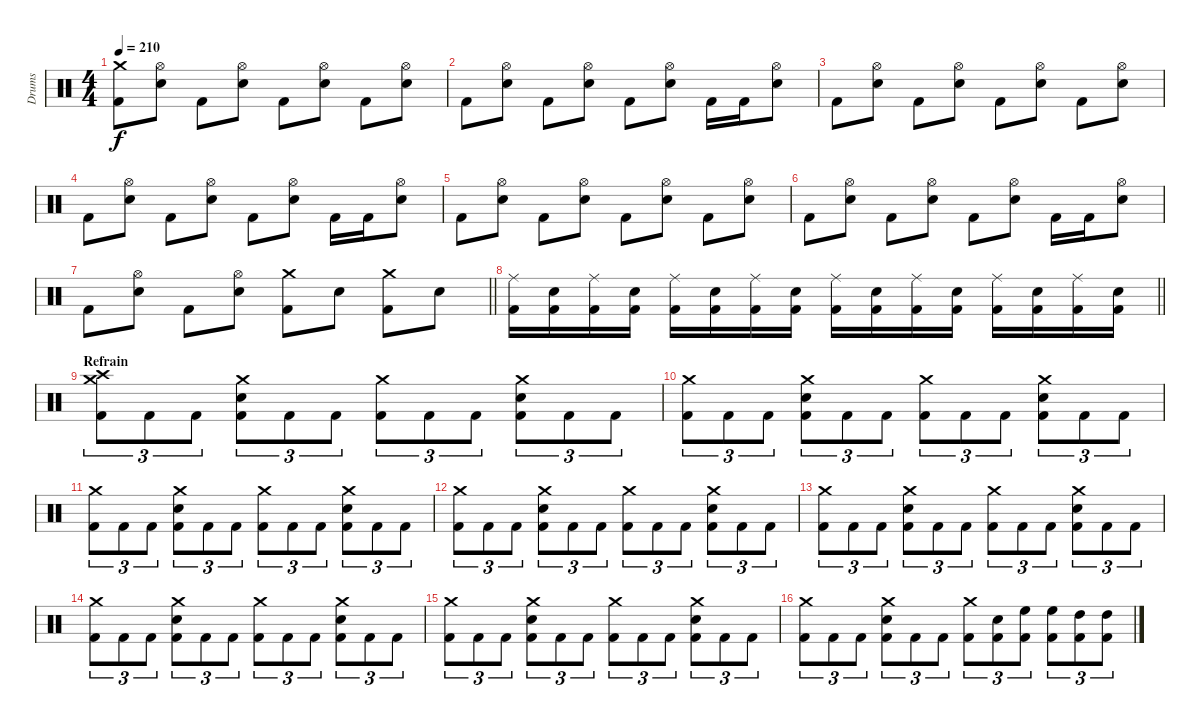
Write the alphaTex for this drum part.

\track ("Drums" "Drums") {instrument percussion}
\staff {score}
\articulation defaults
\ts (4 4)
\tempo 210
\clef neutral
\ks c
("Crash medium (hit)" "Kick (hit) 2").8{dy f} ("Hi-Hat (open)" "Electric Snare (hit)").8 "Kick (hit) 2".8 ("Hi-Hat (open)" "Electric Snare (hit)").8 "Kick (hit) 2".8 ("Hi-Hat (open)" "Electric Snare (hit)").8 "Kick (hit) 2".8 ("Hi-Hat (open)" "Electric Snare (hit)").8 |
"Kick (hit) 2".8 ("Hi-Hat (open)" "Electric Snare (hit)").8 "Kick (hit) 2".8 ("Hi-Hat (open)" "Electric Snare (hit)").8 "Kick (hit) 2".8 ("Hi-Hat (open)" "Electric Snare (hit)").8 "Kick (hit) 2".16 "Kick (hit) 2".16 ("Hi-Hat (open)" "Electric Snare (hit)").8 |
"Kick (hit) 2".8 ("Hi-Hat (open)" "Electric Snare (hit)").8 "Kick (hit) 2".8 ("Hi-Hat (open)" "Electric Snare (hit)").8 "Kick (hit) 2".8 ("Hi-Hat (open)" "Electric Snare (hit)").8 "Kick (hit) 2".8 ("Hi-Hat (open)" "Electric Snare (hit)").8 |
"Kick (hit) 2".8 ("Hi-Hat (open)" "Electric Snare (hit)").8 "Kick (hit) 2".8 ("Hi-Hat (open)" "Electric Snare (hit)").8 "Kick (hit) 2".8 ("Hi-Hat (open)" "Electric Snare (hit)").8 "Kick (hit) 2".16 "Kick (hit) 2".16 ("Hi-Hat (open)" "Electric Snare (hit)").8 |
"Kick (hit) 2".8 ("Hi-Hat (open)" "Electric Snare (hit)").8 "Kick (hit) 2".8 ("Hi-Hat (open)" "Electric Snare (hit)").8 "Kick (hit) 2".8 ("Hi-Hat (open)" "Electric Snare (hit)").8 "Kick (hit) 2".8 ("Hi-Hat (open)" "Electric Snare (hit)").8 |
"Kick (hit) 2".8 ("Hi-Hat (open)" "Electric Snare (hit)").8 "Kick (hit) 2".8 ("Hi-Hat (open)" "Electric Snare (hit)").8 "Kick (hit) 2".8 ("Hi-Hat (open)" "Electric Snare (hit)").8 "Kick (hit) 2".16 "Kick (hit) 2".16 ("Hi-Hat (open)" "Electric Snare (hit)").8 |
\barLineRight lightlight "Kick (hit) 2".8
("Hi-Hat (open)" "Electric Snare (hit)").8 "Kick (hit) 2".8 ("Hi-Hat (open)" "Electric Snare (hit)").8 ("Crash medium (hit)" "Kick (hit) 2").8 "Electric Snare (hit)".8 ("Crash medium (hit)" "Kick (hit) 2").8 "Electric Snare (hit)".8 |
\barLineRight lightlight
("Ride (middle)" "Kick (hit) 2").16 ("Electric Snare (hit)" "Kick (hit) 2").16 ("Ride (middle)" "Kick (hit) 2").16 ("Electric Snare (hit)" "Kick (hit) 2").16 ("Ride (middle)" "Kick (hit) 2").16 ("Electric Snare (hit)" "Kick (hit) 2").16 ("Ride (middle)" "Kick (hit) 2").16 ("Electric Snare (hit)" "Kick (hit) 2").16 ("Ride (middle)" "Kick (hit) 2").16 ("Electric Snare (hit)" "Kick (hit) 2").16 ("Ride (middle)" "Kick (hit) 2").16 ("Electric Snare (hit)" "Kick (hit) 2").16 ("Ride (middle)" "Kick (hit) 2").16 ("Electric Snare (hit)" "Kick (hit) 2").16 ("Ride (middle)" "Kick (hit) 2").16 ("Electric Snare (hit)" "Kick (hit) 2").16 |
\section ("" "Refrain")
("Crash medium (hit)" "Crash high (hit)" "Kick (hit) 2").8{tu (3 2)} "Kick (hit) 2".8{tu (3 2)} "Kick (hit) 2".8{tu (3 2)} ("Crash medium (hit)" "Electric Snare (hit)" "Kick (hit) 2").8{tu (3 2)} "Kick (hit) 2".8{tu (3 2)} "Kick (hit) 2".8{tu (3 2)} ("Crash medium (hit)" "Kick (hit) 2").8{tu (3 2)} "Kick (hit) 2".8{tu (3 2)} "Kick (hit) 2".8{tu (3 2)} ("Crash medium (hit)" "Electric Snare (hit)" "Kick (hit) 2").8{tu (3 2)} "Kick (hit) 2".8{tu (3 2)} "Kick (hit) 2".8{tu (3 2)} |
("Crash medium (hit)" "Kick (hit) 2").8{tu (3 2)} "Kick (hit) 2".8{tu (3 2)} "Kick (hit) 2".8{tu (3 2)} ("Crash medium (hit)" "Electric Snare (hit)" "Kick (hit) 2").8{tu (3 2)} "Kick (hit) 2".8{tu (3 2)} "Kick (hit) 2".8{tu (3 2)} ("Crash medium (hit)" "Kick (hit) 2").8{tu (3 2)} "Kick (hit) 2".8{tu (3 2)} "Kick (hit) 2".8{tu (3 2)} ("Crash medium (hit)" "Electric Snare (hit)" "Kick (hit) 2").8{tu (3 2)} "Kick (hit) 2".8{tu (3 2)} "Kick (hit) 2".8{tu (3 2)} |
("Crash medium (hit)" "Kick (hit) 2").8{tu (3 2)} "Kick (hit) 2".8{tu (3 2)} "Kick (hit) 2".8{tu (3 2)} ("Crash medium (hit)" "Electric Snare (hit)" "Kick (hit) 2").8{tu (3 2)} "Kick (hit) 2".8{tu (3 2)} "Kick (hit) 2".8{tu (3 2)} ("Crash medium (hit)" "Kick (hit) 2").8{tu (3 2)} "Kick (hit) 2".8{tu (3 2)} "Kick (hit) 2".8{tu (3 2)} ("Crash medium (hit)" "Electric Snare (hit)" "Kick (hit) 2").8{tu (3 2)} "Kick (hit) 2".8{tu (3 2)} "Kick (hit) 2".8{tu (3 2)} |
("Crash medium (hit)" "Kick (hit) 2").8{tu (3 2)} "Kick (hit) 2".8{tu (3 2)} "Kick (hit) 2".8{tu (3 2)} ("Crash medium (hit)" "Electric Snare (hit)" "Kick (hit) 2").8{tu (3 2)} "Kick (hit) 2".8{tu (3 2)} "Kick (hit) 2".8{tu (3 2)} ("Crash medium (hit)" "Kick (hit) 2").8{tu (3 2)} "Kick (hit) 2".8{tu (3 2)} "Kick (hit) 2".8{tu (3 2)} ("Crash medium (hit)" "Electric Snare (hit)" "Kick (hit) 2").8{tu (3 2)} "Kick (hit) 2".8{tu (3 2)} "Kick (hit) 2".8{tu (3 2)} |
("Crash medium (hit)" "Kick (hit) 2").8{tu (3 2)} "Kick (hit) 2".8{tu (3 2)} "Kick (hit) 2".8{tu (3 2)} ("Crash medium (hit)" "Electric Snare (hit)" "Kick (hit) 2").8{tu (3 2)} "Kick (hit) 2".8{tu (3 2)} "Kick (hit) 2".8{tu (3 2)} ("Crash medium (hit)" "Kick (hit) 2").8{tu (3 2)} "Kick (hit) 2".8{tu (3 2)} "Kick (hit) 2".8{tu (3 2)} ("Crash medium (hit)" "Electric Snare (hit)" "Kick (hit) 2").8{tu (3 2)} "Kick (hit) 2".8{tu (3 2)} "Kick (hit) 2".8{tu (3 2)} |
("Crash medium (hit)" "Kick (hit) 2").8{tu (3 2)} "Kick (hit) 2".8{tu (3 2)} "Kick (hit) 2".8{tu (3 2)} ("Crash medium (hit)" "Electric Snare (hit)" "Kick (hit) 2").8{tu (3 2)} "Kick (hit) 2".8{tu (3 2)} "Kick (hit) 2".8{tu (3 2)} ("Crash medium (hit)" "Kick (hit) 2").8{tu (3 2)} "Kick (hit) 2".8{tu (3 2)} "Kick (hit) 2".8{tu (3 2)} ("Crash medium (hit)" "Electric Snare (hit)" "Kick (hit) 2").8{tu (3 2)} "Kick (hit) 2".8{tu (3 2)} "Kick (hit) 2".8{tu (3 2)} |
("Crash medium (hit)" "Kick (hit) 2").8{tu (3 2)} "Kick (hit) 2".8{tu (3 2)} "Kick (hit) 2".8{tu (3 2)} ("Crash medium (hit)" "Electric Snare (hit)" "Kick (hit) 2").8{tu (3 2)} "Kick (hit) 2".8{tu (3 2)} "Kick (hit) 2".8{tu (3 2)} ("Crash medium (hit)" "Kick (hit) 2").8{tu (3 2)} "Kick (hit) 2".8{tu (3 2)} "Kick (hit) 2".8{tu (3 2)} ("Crash medium (hit)" "Electric Snare (hit)" "Kick (hit) 2").8{tu (3 2)} "Kick (hit) 2".8{tu (3 2)} "Kick (hit) 2".8{tu (3 2)} |
("Crash medium (hit)" "Kick (hit) 2").8{tu (3 2)} "Kick (hit) 2".8{tu (3 2)} "Kick (hit) 2".8{tu (3 2)} ("Crash medium (hit)" "Electric Snare (hit)" "Kick (hit) 2").8{tu (3 2)} "Kick (hit) 2".8{tu (3 2)} "Kick (hit) 2".8{tu (3 2)} ("Crash medium (hit)" "Kick (hit) 2").8{tu (3 2)} ("Electric Snare (hit)" "Kick (hit) 2").8{tu (3 2)} ("High Floor Tom (hit)" "Kick (hit) 2").8{tu (3 2)} ("High Floor Tom (hit)" "Kick (hit) 2").8{tu (3 2)} ("High Tom (hit)" "Kick (hit) 2").8{tu (3 2)} ("High Tom (hit)" "Kick (hit) 2").8{tu (3 2)}
